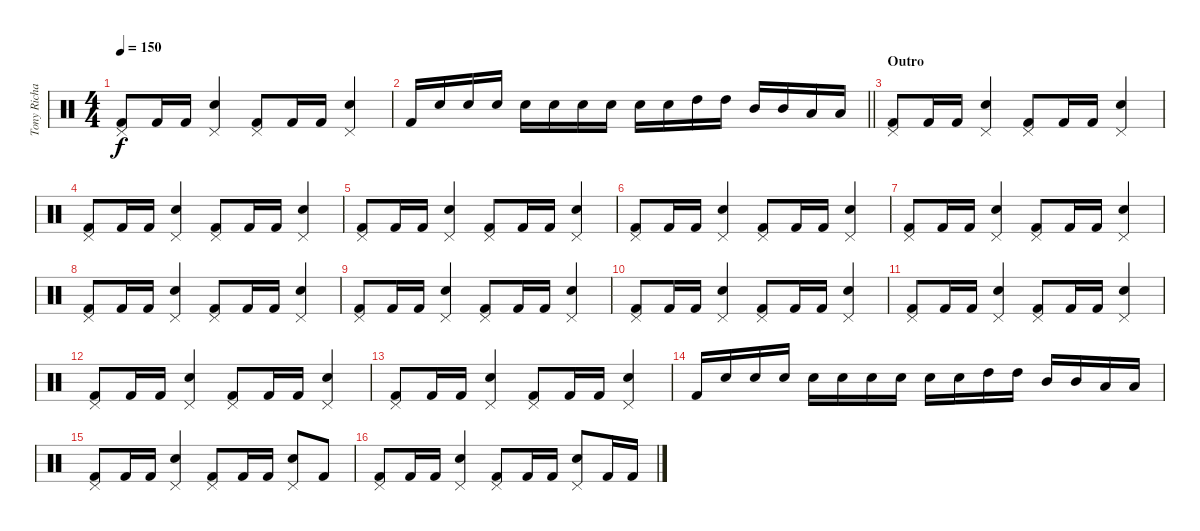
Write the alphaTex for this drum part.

\track ("Tony Richards (drums)" "Tony Richa") {instrument percussion}
\staff {score}
\articulation defaults
\ts (4 4)
\tempo 150
\clef neutral
\ks c
("Pedal Hi-Hat (hit)" "Kick (hit) 2").8{dy f} "Kick (hit) 2".16 "Kick (hit) 2".16 ("Pedal Hi-Hat (hit)" "Snare (hit) 2").4 ("Pedal Hi-Hat (hit)" "Kick (hit) 2").8 "Kick (hit) 2".16 "Kick (hit) 2".16 ("Pedal Hi-Hat (hit)" "Snare (hit) 2").4 |
\barLineRight lightlight "Kick (hit) 2".16 "Snare (hit) 2".16 "Snare (hit) 2".16 "Snare (hit) 2".16 "Snare (hit) 2".16 "Snare (hit) 2".16 "Snare (hit) 2".16 "Snare (hit) 2".16 "Snare (hit) 2".16 "Snare (hit) 2".16 "High Tom (hit)".16 "High Tom (hit)".16 "Mid Tom (hit)".16 "Mid Tom (hit)".16 "Low Tom (hit)".16 "Low Tom (hit)".16
|
\section ("" "Outro")
("Pedal Hi-Hat (hit)" "Kick (hit) 2").8 "Kick (hit) 2".16 "Kick (hit) 2".16 ("Pedal Hi-Hat (hit)" "Snare (hit) 2").4 ("Pedal Hi-Hat (hit)" "Kick (hit) 2").8 "Kick (hit) 2".16 "Kick (hit) 2".16 ("Pedal Hi-Hat (hit)" "Snare (hit) 2").4 |
("Pedal Hi-Hat (hit)" "Kick (hit) 2").8 "Kick (hit) 2".16 "Kick (hit) 2".16 ("Pedal Hi-Hat (hit)" "Snare (hit) 2").4 ("Pedal Hi-Hat (hit)" "Kick (hit) 2").8 "Kick (hit) 2".16 "Kick (hit) 2".16 ("Pedal Hi-Hat (hit)" "Snare (hit) 2").4 |
("Pedal Hi-Hat (hit)" "Kick (hit) 2").8 "Kick (hit) 2".16 "Kick (hit) 2".16 ("Pedal Hi-Hat (hit)" "Snare (hit) 2").4 ("Pedal Hi-Hat (hit)" "Kick (hit) 2").8 "Kick (hit) 2".16 "Kick (hit) 2".16 ("Pedal Hi-Hat (hit)" "Snare (hit) 2").4 |
("Pedal Hi-Hat (hit)" "Kick (hit) 2").8 "Kick (hit) 2".16 "Kick (hit) 2".16 ("Pedal Hi-Hat (hit)" "Snare (hit) 2").4 ("Pedal Hi-Hat (hit)" "Kick (hit) 2").8 "Kick (hit) 2".16 "Kick (hit) 2".16 ("Pedal Hi-Hat (hit)" "Snare (hit) 2").4 |
("Pedal Hi-Hat (hit)" "Kick (hit) 2").8 "Kick (hit) 2".16 "Kick (hit) 2".16 ("Pedal Hi-Hat (hit)" "Snare (hit) 2").4 ("Pedal Hi-Hat (hit)" "Kick (hit) 2").8 "Kick (hit) 2".16 "Kick (hit) 2".16 ("Pedal Hi-Hat (hit)" "Snare (hit) 2").4 |
("Pedal Hi-Hat (hit)" "Kick (hit) 2").8 "Kick (hit) 2".16 "Kick (hit) 2".16 ("Pedal Hi-Hat (hit)" "Snare (hit) 2").4 ("Pedal Hi-Hat (hit)" "Kick (hit) 2").8 "Kick (hit) 2".16 "Kick (hit) 2".16 ("Pedal Hi-Hat (hit)" "Snare (hit) 2").4 |
("Pedal Hi-Hat (hit)" "Kick (hit) 2").8 "Kick (hit) 2".16 "Kick (hit) 2".16 ("Pedal Hi-Hat (hit)" "Snare (hit) 2").4 ("Pedal Hi-Hat (hit)" "Kick (hit) 2").8 "Kick (hit) 2".16 "Kick (hit) 2".16 ("Pedal Hi-Hat (hit)" "Snare (hit) 2").4 |
("Pedal Hi-Hat (hit)" "Kick (hit) 2").8 "Kick (hit) 2".16 "Kick (hit) 2".16 ("Pedal Hi-Hat (hit)" "Snare (hit) 2").4 ("Pedal Hi-Hat (hit)" "Kick (hit) 2").8 "Kick (hit) 2".16 "Kick (hit) 2".16 ("Pedal Hi-Hat (hit)" "Snare (hit) 2").4 |
("Pedal Hi-Hat (hit)" "Kick (hit) 2").8 "Kick (hit) 2".16 "Kick (hit) 2".16 ("Pedal Hi-Hat (hit)" "Snare (hit) 2").4 ("Pedal Hi-Hat (hit)" "Kick (hit) 2").8 "Kick (hit) 2".16 "Kick (hit) 2".16 ("Pedal Hi-Hat (hit)" "Snare (hit) 2").4 |
("Pedal Hi-Hat (hit)" "Kick (hit) 2").8 "Kick (hit) 2".16 "Kick (hit) 2".16 ("Pedal Hi-Hat (hit)" "Snare (hit) 2").4 ("Pedal Hi-Hat (hit)" "Kick (hit) 2").8 "Kick (hit) 2".16 "Kick (hit) 2".16 ("Pedal Hi-Hat (hit)" "Snare (hit) 2").4 |
("Pedal Hi-Hat (hit)" "Kick (hit) 2").8 "Kick (hit) 2".16 "Kick (hit) 2".16 ("Pedal Hi-Hat (hit)" "Snare (hit) 2").4 ("Pedal Hi-Hat (hit)" "Kick (hit) 2").8 "Kick (hit) 2".16 "Kick (hit) 2".16 ("Pedal Hi-Hat (hit)" "Snare (hit) 2").4 |
"Kick (hit) 2".16 "Snare (hit) 2".16 "Snare (hit) 2".16 "Snare (hit) 2".16 "Snare (hit) 2".16 "Snare (hit) 2".16 "Snare (hit) 2".16 "Snare (hit) 2".16 "Snare (hit) 2".16 "Snare (hit) 2".16 "High Tom (hit)".16 "High Tom (hit)".16 "Mid Tom (hit)".16 "Mid Tom (hit)".16 "Low Tom (hit)".16 "Low Tom (hit)".16 |
("Pedal Hi-Hat (hit)" "Kick (hit) 2").8 "Kick (hit) 2".16 "Kick (hit) 2".16 ("Pedal Hi-Hat (hit)" "Snare (hit) 2").4 ("Pedal Hi-Hat (hit)" "Kick (hit) 2").8 "Kick (hit) 2".16 "Kick (hit) 2".16 ("Pedal Hi-Hat (hit)" "Snare (hit) 2").8 "Kick (hit) 2".8 |
("Pedal Hi-Hat (hit)" "Kick (hit) 2").8 "Kick (hit) 2".16 "Kick (hit) 2".16 ("Pedal Hi-Hat (hit)" "Snare (hit) 2").4 ("Pedal Hi-Hat (hit)" "Kick (hit) 2").8 "Kick (hit) 2".16 "Kick (hit) 2".16 ("Pedal Hi-Hat (hit)" "Snare (hit) 2").8 "Kick (hit) 2".16 "Kick (hit) 2".16
